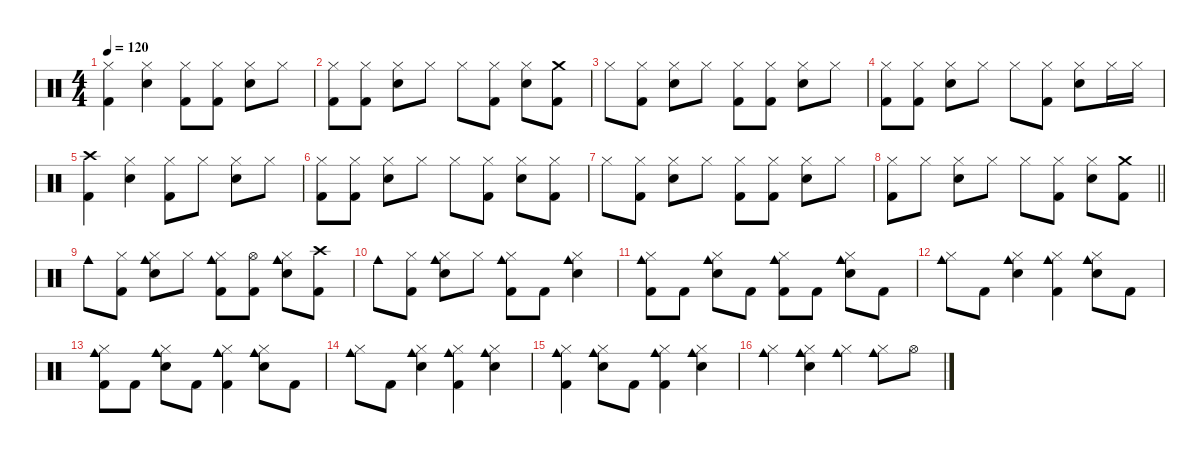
\defaultSystemsLayout 4
\hideDynamics
\bracketExtendMode nobrackets
\singleTrackTrackNamePolicy hidden
\multiTrackTrackNamePolicy hidden
\otherSystemsTrackNameOrientation horizontal
\track ("Percussions" "drm.") {instrument percussion}
\staff {score}
\articulation defaults
\ts (4 4)
\tempo 120
\clef neutral
\ks c
("Hi-Hat (closed)" "Kick (hit) 2").4{dy f beam Down} ("Hi-Hat (closed)" "Snare (hit) 2").4{beam Down} ("Hi-Hat (closed)" "Kick (hit) 2").8{beam Down} ("Hi-Hat (closed)" "Kick (hit) 2").8{beam Down} ("Hi-Hat (closed)" "Snare (hit) 2").8{beam Down} "Hi-Hat (closed)".8{beam Down} |
("Hi-Hat (closed)" "Kick (hit) 2").8{beam Down} ("Hi-Hat (closed)" "Kick (hit) 2").8{beam Down} ("Hi-Hat (closed)" "Snare (hit) 2").8{beam Down} "Hi-Hat (closed)".8{beam Down} "Hi-Hat (closed)".8{beam Down} ("Hi-Hat (closed)" "Kick (hit) 2").8{beam Down} ("Hi-Hat (closed)" "Snare (hit) 2").8{beam Down} ("Crash medium (hit)" "Kick (hit) 2").8{beam Down} |
"Hi-Hat (closed)".8{beam Down} ("Hi-Hat (closed)" "Kick (hit) 2").8{beam Down} ("Hi-Hat (closed)" "Snare (hit) 2").8{beam Down} "Hi-Hat (closed)".8{beam Down} ("Hi-Hat (closed)" "Kick (hit) 2").8{beam Down} ("Hi-Hat (closed)" "Kick (hit) 2").8{beam Down} ("Hi-Hat (closed)" "Snare (hit) 2").8{beam Down} "Hi-Hat (closed)".8{beam Down} |
("Hi-Hat (closed)" "Kick (hit) 2").8{beam Down} ("Hi-Hat (closed)" "Kick (hit) 2").8{beam Down} ("Hi-Hat (closed)" "Snare (hit) 2").8{beam Down} "Hi-Hat (closed)".8{beam Down} "Hi-Hat (closed)".8{beam Down} ("Hi-Hat (closed)" "Kick (hit) 2").8{beam Down} ("Hi-Hat (closed)" "Snare (hit) 2").8{beam Down} "Hi-Hat (closed)".16{beam Down} "Hi-Hat (closed)".16{beam Down} |
("Crash high (hit)" "Kick (hit) 2").4{beam Down} ("Hi-Hat (closed)" "Snare (hit) 2").4{beam Down} ("Hi-Hat (closed)" "Kick (hit) 2").8{beam Down} "Hi-Hat (closed)".8{beam Down} ("Hi-Hat (closed)" "Snare (hit) 2").8{beam Down} "Hi-Hat (closed)".8{beam Down} |
("Hi-Hat (closed)" "Kick (hit) 2").8{beam Down} ("Hi-Hat (closed)" "Kick (hit) 2").8{beam Down} ("Hi-Hat (closed)" "Snare (hit) 2").8{beam Down} "Hi-Hat (closed)".8{beam Down} "Hi-Hat (closed)".8{beam Down} ("Hi-Hat (closed)" "Kick (hit) 2").8{beam Down} ("Hi-Hat (closed)" "Snare (hit) 2").8{beam Down} ("Hi-Hat (closed)" "Kick (hit) 2").8{beam Down} |
"Hi-Hat (closed)".8{beam Down} ("Hi-Hat (closed)" "Kick (hit) 2").8{beam Down} ("Hi-Hat (closed)" "Snare (hit) 2").8{beam Down} "Hi-Hat (closed)".8{beam Down} ("Hi-Hat (closed)" "Kick (hit) 2").8{beam Down} ("Hi-Hat (closed)" "Kick (hit) 2").8{beam Down} ("Hi-Hat (closed)" "Snare (hit) 2").8{beam Down} "Hi-Hat (closed)".8{beam Down} |
\barLineRight lightlight
("Hi-Hat (closed)" "Kick (hit) 2").8{beam Down} "Hi-Hat (closed)".8{beam Down} ("Hi-Hat (closed)" "Snare (hit) 2").8{beam Down} "Hi-Hat (closed)".8{beam Down} "Hi-Hat (closed)".8{beam Down} ("Hi-Hat (closed)" "Kick (hit) 2").8{beam Down} ("Hi-Hat (closed)" "Snare (hit) 2").8{beam Down} ("Crash medium (hit)" "Kick (hit) 2").8{beam Down} |
"Cowbell medium (hit)".8{beam Down} ("Hi-Hat (closed)" "Kick (hit) 2").8{beam Down} ("Cowbell medium (hit)" "Hi-Hat (closed)" "Snare (hit) 2").8{beam Down} "Hi-Hat (closed)".8{beam Down} ("Cowbell medium (hit)" "Hi-Hat (closed)" "Kick (hit) 2").8{beam Down} ("Hi-Hat (open)" "Kick (hit) 2").8{beam Down} ("Cowbell medium (hit)" "Hi-Hat (closed)" "Snare (hit) 2").8{beam Down} ("Crash high (hit)" "Kick (hit) 2").8{beam Down} |
"Cowbell medium (hit)".8{beam Down} ("Hi-Hat (closed)" "Kick (hit) 2").8{beam Down} ("Cowbell medium (hit)" "Hi-Hat (closed)" "Snare (hit) 2").8{beam Down} "Hi-Hat (closed)".8{beam Down} ("Cowbell medium (hit)" "Hi-Hat (closed)" "Kick (hit) 2").8{beam Down} "Kick (hit) 2".8{beam Down} ("Cowbell medium (hit)" "Hi-Hat (closed)" "Snare (hit) 2").4{beam Down} |
("Cowbell medium (hit)" "Hi-Hat (closed)" "Kick (hit) 2").8{beam Down} "Kick (hit) 2".8{beam Down} ("Cowbell medium (hit)" "Hi-Hat (closed)" "Snare (hit) 2").8{beam Down} "Kick (hit) 2".8{beam Down} ("Cowbell medium (hit)" "Hi-Hat (closed)" "Kick (hit) 2").8{beam Down} "Kick (hit) 2".8{beam Down} ("Cowbell medium (hit)" "Hi-Hat (closed)" "Snare (hit) 2").8{beam Down} "Kick (hit) 2".8{beam Down} |
("Cowbell medium (hit)" "Hi-Hat (closed)").8{beam Down} "Kick (hit) 2".8{beam Down} ("Cowbell medium (hit)" "Hi-Hat (closed)" "Snare (hit) 2").4{beam Down} ("Cowbell medium (hit)" "Hi-Hat (closed)" "Kick (hit) 2").4{beam Down} ("Cowbell medium (hit)" "Hi-Hat (closed)" "Snare (hit) 2").8{beam Down} "Kick (hit) 2".8{beam Down} |
("Cowbell medium (hit)" "Hi-Hat (closed)" "Kick (hit) 2").8{beam Down} "Kick (hit) 2".8{beam Down} ("Cowbell medium (hit)" "Hi-Hat (closed)" "Snare (hit) 2").8{beam Down} "Kick (hit) 2".8{beam Down} ("Cowbell medium (hit)" "Hi-Hat (closed)" "Kick (hit) 2").4{beam Down} ("Cowbell medium (hit)" "Hi-Hat (closed)" "Snare (hit) 2").8{beam Down} "Kick (hit) 2".8{beam Down} |
("Cowbell medium (hit)" "Hi-Hat (closed)").8{beam Down} "Kick (hit) 2".8{beam Down} ("Cowbell medium (hit)" "Hi-Hat (closed)" "Snare (hit) 2").4{beam Down} ("Cowbell medium (hit)" "Hi-Hat (closed)" "Kick (hit) 2").4{beam Down} ("Cowbell medium (hit)" "Hi-Hat (closed)" "Snare (hit) 2").4{beam Down} |
("Cowbell medium (hit)" "Hi-Hat (closed)" "Kick (hit) 2").4{beam Down} ("Cowbell medium (hit)" "Hi-Hat (closed)" "Snare (hit) 2").8{beam Down} "Kick (hit) 2".8{beam Down} ("Cowbell medium (hit)" "Hi-Hat (closed)" "Kick (hit) 2").4{beam Down} ("Cowbell medium (hit)" "Hi-Hat (closed)" "Snare (hit) 2").4{beam Down} |
("Cowbell medium (hit)" "Hi-Hat (closed)").4{beam Down} ("Cowbell medium (hit)" "Hi-Hat (closed)" "Snare (hit) 2").4{beam Down} ("Cowbell medium (hit)" "Hi-Hat (closed)").4{beam Down} ("Cowbell medium (hit)" "Hi-Hat (closed)").8{beam Down} "Hi-Hat (open)".8{beam Down}
